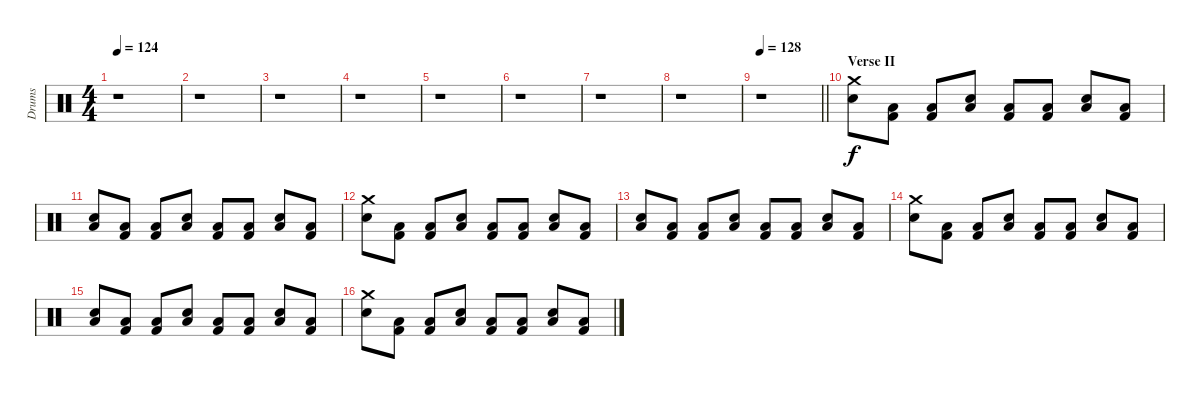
\track ("Drums" "Drums") {instrument percussion}
\staff {score}
\articulation defaults
\ts (4 4)
\tempo 124
\clef neutral
\ks c
r.1{dy f} |
r.1 |
r.1 |
r.1 |
r.1 |
r.1 |
r.1 |
r.1 |
\tempo 128
\barLineRight lightlight
r.1 |
\section ("" "Verse II")
("Crash medium (hit)" "Snare (hit) 2").8 ("Low Floor Tom (hit)" "Kick (hit) 2").8 ("Low Floor Tom (hit)" "Kick (hit) 2").8 ("Snare (hit) 2" "Low Floor Tom (hit)").8 ("Low Floor Tom (hit)" "Kick (hit) 2").8 ("Low Floor Tom (hit)" "Kick (hit) 2").8 ("Snare (hit) 2" "Low Floor Tom (hit)").8 ("Low Floor Tom (hit)" "Kick (hit) 2").8 |
("Snare (hit) 2" "Low Floor Tom (hit)").8 ("Low Floor Tom (hit)" "Kick (hit) 2").8 ("Low Floor Tom (hit)" "Kick (hit) 2").8 ("Snare (hit) 2" "Low Floor Tom (hit)").8 ("Low Floor Tom (hit)" "Kick (hit) 2").8 ("Low Floor Tom (hit)" "Kick (hit) 2").8 ("Snare (hit) 2" "Low Floor Tom (hit)").8 ("Low Floor Tom (hit)" "Kick (hit) 2").8 |
("Crash medium (hit)" "Snare (hit) 2").8 ("Low Floor Tom (hit)" "Kick (hit) 2").8 ("Low Floor Tom (hit)" "Kick (hit) 2").8 ("Snare (hit) 2" "Low Floor Tom (hit)").8 ("Low Floor Tom (hit)" "Kick (hit) 2").8 ("Low Floor Tom (hit)" "Kick (hit) 2").8 ("Snare (hit) 2" "Low Floor Tom (hit)").8 ("Low Floor Tom (hit)" "Kick (hit) 2").8 |
("Snare (hit) 2" "Low Floor Tom (hit)").8 ("Low Floor Tom (hit)" "Kick (hit) 2").8 ("Low Floor Tom (hit)" "Kick (hit) 2").8 ("Snare (hit) 2" "Low Floor Tom (hit)").8 ("Low Floor Tom (hit)" "Kick (hit) 2").8 ("Low Floor Tom (hit)" "Kick (hit) 2").8 ("Snare (hit) 2" "Low Floor Tom (hit)").8 ("Low Floor Tom (hit)" "Kick (hit) 2").8 |
("Crash medium (hit)" "Snare (hit) 2").8 ("Low Floor Tom (hit)" "Kick (hit) 2").8 ("Low Floor Tom (hit)" "Kick (hit) 2").8 ("Snare (hit) 2" "Low Floor Tom (hit)").8 ("Low Floor Tom (hit)" "Kick (hit) 2").8 ("Low Floor Tom (hit)" "Kick (hit) 2").8 ("Snare (hit) 2" "Low Floor Tom (hit)").8 ("Low Floor Tom (hit)" "Kick (hit) 2").8 |
("Snare (hit) 2" "Low Floor Tom (hit)").8 ("Low Floor Tom (hit)" "Kick (hit) 2").8 ("Low Floor Tom (hit)" "Kick (hit) 2").8 ("Snare (hit) 2" "Low Floor Tom (hit)").8 ("Low Floor Tom (hit)" "Kick (hit) 2").8 ("Low Floor Tom (hit)" "Kick (hit) 2").8 ("Snare (hit) 2" "Low Floor Tom (hit)").8 ("Low Floor Tom (hit)" "Kick (hit) 2").8 |
("Crash medium (hit)" "Snare (hit) 2").8 ("Low Floor Tom (hit)" "Kick (hit) 2").8 ("Low Floor Tom (hit)" "Kick (hit) 2").8 ("Snare (hit) 2" "Low Floor Tom (hit)").8 ("Low Floor Tom (hit)" "Kick (hit) 2").8 ("Low Floor Tom (hit)" "Kick (hit) 2").8 ("Snare (hit) 2" "Low Floor Tom (hit)").8 ("Low Floor Tom (hit)" "Kick (hit) 2").8
